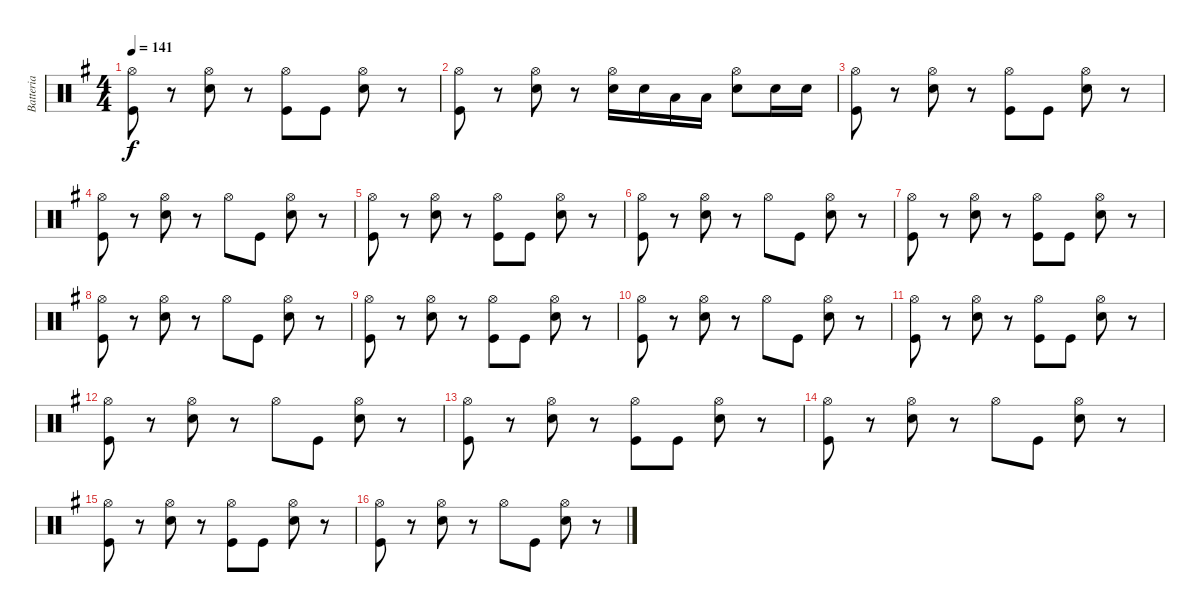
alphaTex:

\track ("Batteria" "Batteria") {instrument percussion}
\staff {score}
\articulation defaults
\ts (4 4)
\tempo 141
\clef neutral
\ks eminor
("Hi-Hat (open)" "Kick (hit)").8{dy f} r.8 ("Hi-Hat (open)" "Electric Snare (hit)").8 r.8 ("Hi-Hat (open)" "Kick (hit)").8 "Kick (hit)".8 ("Hi-Hat (open)" "Electric Snare (hit)").8 r.8 |
("Hi-Hat (open)" "Kick (hit)").8 r.8 ("Hi-Hat (open)" "Electric Snare (hit)").8 r.8 ("Hi-Hat (open)" "Electric Snare (hit)").16 "Electric Snare (hit)".16 "Low Tom (hit)".16 "Low Tom (hit)".16 ("Hi-Hat (open)" "Electric Snare (hit)").8 "Electric Snare (hit)".16 "Electric Snare (hit)".16 |
("Hi-Hat (open)" "Kick (hit)").8 r.8 ("Hi-Hat (open)" "Electric Snare (hit)").8 r.8 ("Hi-Hat (open)" "Kick (hit)").8 "Kick (hit)".8 ("Hi-Hat (open)" "Electric Snare (hit)").8 r.8 |
("Hi-Hat (open)" "Kick (hit)").8 r.8 ("Hi-Hat (open)" "Electric Snare (hit)").8 r.8 "Hi-Hat (open)".8 "Kick (hit)".8 ("Hi-Hat (open)" "Electric Snare (hit)").8 r.8 |
("Hi-Hat (open)" "Kick (hit)").8 r.8 ("Hi-Hat (open)" "Electric Snare (hit)").8 r.8 ("Hi-Hat (open)" "Kick (hit)").8 "Kick (hit)".8 ("Hi-Hat (open)" "Electric Snare (hit)").8 r.8 |
("Hi-Hat (open)" "Kick (hit)").8 r.8 ("Hi-Hat (open)" "Electric Snare (hit)").8 r.8 "Hi-Hat (open)".8 "Kick (hit)".8 ("Hi-Hat (open)" "Electric Snare (hit)").8 r.8 |
("Hi-Hat (open)" "Kick (hit)").8 r.8 ("Hi-Hat (open)" "Electric Snare (hit)").8 r.8 ("Hi-Hat (open)" "Kick (hit)").8 "Kick (hit)".8 ("Hi-Hat (open)" "Electric Snare (hit)").8 r.8 |
("Hi-Hat (open)" "Kick (hit)").8 r.8 ("Hi-Hat (open)" "Electric Snare (hit)").8 r.8 "Hi-Hat (open)".8 "Kick (hit)".8 ("Hi-Hat (open)" "Electric Snare (hit)").8 r.8 |
("Hi-Hat (open)" "Kick (hit)").8 r.8 ("Hi-Hat (open)" "Electric Snare (hit)").8 r.8 ("Hi-Hat (open)" "Kick (hit)").8 "Kick (hit)".8 ("Hi-Hat (open)" "Electric Snare (hit)").8 r.8 |
("Hi-Hat (open)" "Kick (hit)").8 r.8 ("Hi-Hat (open)" "Electric Snare (hit)").8 r.8 "Hi-Hat (open)".8 "Kick (hit)".8 ("Hi-Hat (open)" "Electric Snare (hit)").8 r.8 |
("Hi-Hat (open)" "Kick (hit)").8 r.8 ("Hi-Hat (open)" "Electric Snare (hit)").8 r.8 ("Hi-Hat (open)" "Kick (hit)").8 "Kick (hit)".8 ("Hi-Hat (open)" "Electric Snare (hit)").8 r.8 |
("Hi-Hat (open)" "Kick (hit)").8 r.8 ("Hi-Hat (open)" "Electric Snare (hit)").8 r.8 "Hi-Hat (open)".8 "Kick (hit)".8 ("Hi-Hat (open)" "Electric Snare (hit)").8 r.8 |
("Hi-Hat (open)" "Kick (hit)").8 r.8 ("Hi-Hat (open)" "Electric Snare (hit)").8 r.8 ("Hi-Hat (open)" "Kick (hit)").8 "Kick (hit)".8 ("Hi-Hat (open)" "Electric Snare (hit)").8 r.8 |
("Hi-Hat (open)" "Kick (hit)").8 r.8 ("Hi-Hat (open)" "Electric Snare (hit)").8 r.8 "Hi-Hat (open)".8 "Kick (hit)".8 ("Hi-Hat (open)" "Electric Snare (hit)").8 r.8 |
("Hi-Hat (open)" "Kick (hit)").8 r.8 ("Hi-Hat (open)" "Electric Snare (hit)").8 r.8 ("Hi-Hat (open)" "Kick (hit)").8 "Kick (hit)".8 ("Hi-Hat (open)" "Electric Snare (hit)").8 r.8 |
("Hi-Hat (open)" "Kick (hit)").8 r.8 ("Hi-Hat (open)" "Electric Snare (hit)").8 r.8 "Hi-Hat (open)".8 "Kick (hit)".8 ("Hi-Hat (open)" "Electric Snare (hit)").8 r.8
